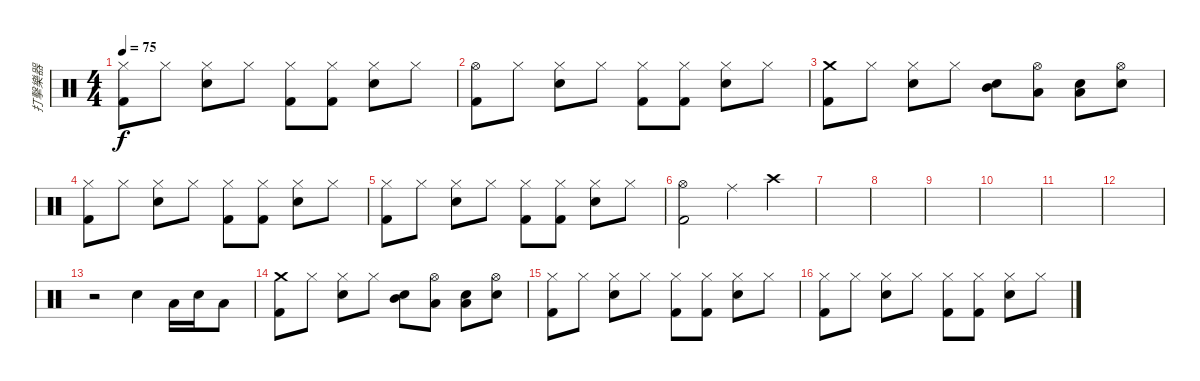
\track ("打擊樂器" "打擊樂器") {instrument percussion}
\staff {score}
\articulation defaults
\ts (4 4)
\tempo 75
\clef neutral
\ks c
("Hi-Hat (closed)" "Kick (hit) 2").8{dy f} "Hi-Hat (closed)".8 ("Hi-Hat (closed)" "Electric Snare (hit)").8 "Hi-Hat (closed)".8 ("Hi-Hat (closed)" "Kick (hit) 2").8 ("Hi-Hat (closed)" "Kick (hit) 2").8 ("Hi-Hat (closed)" "Electric Snare (hit)").8 "Hi-Hat (closed)".8 |
("Hi-Hat (open)" "Kick (hit) 2").8 "Hi-Hat (closed)".8 ("Hi-Hat (closed)" "Electric Snare (hit)").8 "Hi-Hat (closed)".8 ("Hi-Hat (closed)" "Kick (hit) 2").8 ("Hi-Hat (closed)" "Kick (hit) 2").8 ("Hi-Hat (closed)" "Electric Snare (hit)").8 "Hi-Hat (closed)".8 |
("Crash medium (hit)" "Kick (hit) 2").8 "Hi-Hat (closed)".8 ("Hi-Hat (closed)" "Electric Snare (hit)").8 "Hi-Hat (closed)".8 ("Electric Snare (hit)" "Mid Tom (hit)").8 ("Hi-Hat (open)" "Low Tom (hit)").8 ("Electric Snare (hit)" "Low Tom (hit)").8 ("Electric Snare (hit)" "Hi-Hat (open)").8 |
("Hi-Hat (closed)" "Kick (hit) 2").8 "Hi-Hat (closed)".8 ("Hi-Hat (closed)" "Electric Snare (hit)").8 "Hi-Hat (closed)".8 ("Hi-Hat (closed)" "Kick (hit) 2").8 ("Hi-Hat (closed)" "Kick (hit) 2").8 ("Hi-Hat (closed)" "Electric Snare (hit)").8 "Hi-Hat (closed)".8 |
("Hi-Hat (closed)" "Kick (hit) 2").8 "Hi-Hat (closed)".8 ("Hi-Hat (closed)" "Electric Snare (hit)").8 "Hi-Hat (closed)".8 ("Hi-Hat (closed)" "Kick (hit) 2").8 ("Hi-Hat (closed)" "Kick (hit) 2").8 ("Hi-Hat (closed)" "Electric Snare (hit)").8 "Hi-Hat (closed)".8 |
("Hi-Hat (open)" "Kick (hit) 2").2 "Ride (middle)".4 "Crash high (hit)".4 |
|
|
|
|
|
|
r.2 "Electric Snare (hit)".4 "Low Floor Tom (hit)".16 "Electric Snare (hit)".16 "Low Floor Tom (hit)".8 |
("Crash medium (hit)" "Kick (hit) 2").8 "Hi-Hat (closed)".8 ("Hi-Hat (closed)" "Electric Snare (hit)").8 "Hi-Hat (closed)".8 ("Electric Snare (hit)" "Mid Tom (hit)").8 ("Hi-Hat (open)" "Low Tom (hit)").8 ("Electric Snare (hit)" "Low Tom (hit)").8 ("Electric Snare (hit)" "Hi-Hat (open)").8 |
("Hi-Hat (closed)" "Kick (hit) 2").8 "Hi-Hat (closed)".8 ("Hi-Hat (closed)" "Electric Snare (hit)").8 "Hi-Hat (closed)".8 ("Hi-Hat (closed)" "Kick (hit) 2").8 ("Hi-Hat (closed)" "Kick (hit) 2").8 ("Hi-Hat (closed)" "Electric Snare (hit)").8 "Hi-Hat (closed)".8 |
("Hi-Hat (closed)" "Kick (hit) 2").8 "Hi-Hat (closed)".8 ("Hi-Hat (closed)" "Electric Snare (hit)").8 "Hi-Hat (closed)".8 ("Hi-Hat (closed)" "Kick (hit) 2").8 ("Hi-Hat (closed)" "Kick (hit) 2").8 ("Hi-Hat (closed)" "Electric Snare (hit)").8 "Hi-Hat (closed)".8
